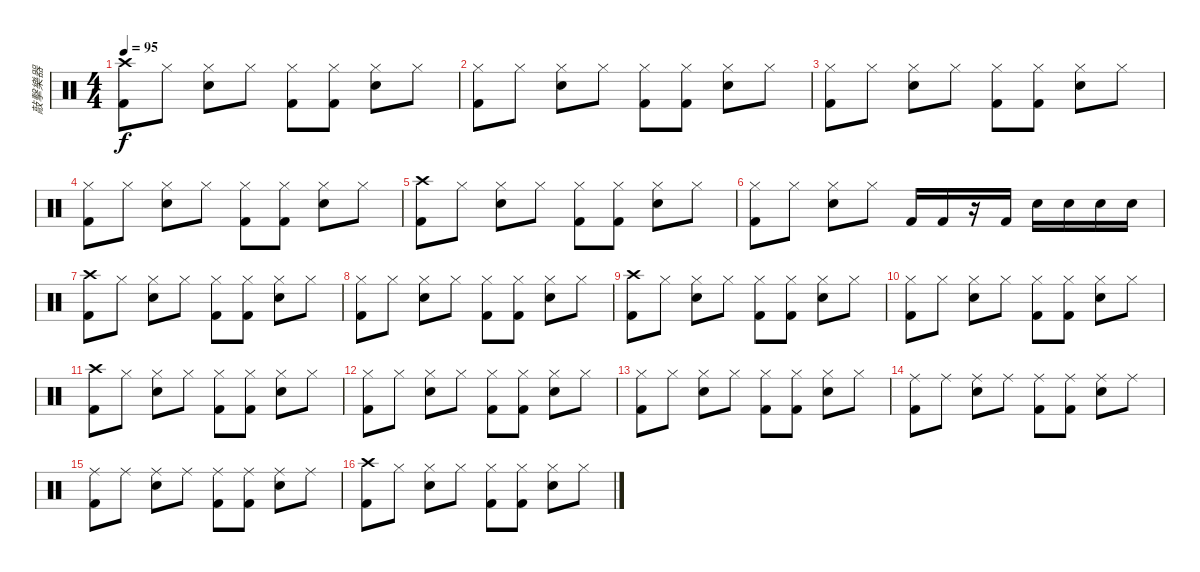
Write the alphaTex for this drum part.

\track ("敲擊樂器" "敲擊樂器") {instrument percussion}
\staff {score}
\articulation defaults
\ts (4 4)
\tempo 95
\clef neutral
\ks c
("Crash high (hit)" "Kick (hit) 2").8{dy f} "Hi-Hat (closed)".8 ("Hi-Hat (closed)" "Snare (hit) 2").8 "Hi-Hat (closed)".8 ("Hi-Hat (closed)" "Kick (hit) 2").8 ("Hi-Hat (closed)" "Kick (hit) 2").8 ("Hi-Hat (closed)" "Snare (hit) 2").8 "Hi-Hat (closed)".8 |
("Hi-Hat (closed)" "Kick (hit) 2").8 "Hi-Hat (closed)".8 ("Hi-Hat (closed)" "Snare (hit) 2").8 "Hi-Hat (closed)".8 ("Hi-Hat (closed)" "Kick (hit) 2").8 ("Hi-Hat (closed)" "Kick (hit) 2").8 ("Hi-Hat (closed)" "Snare (hit) 2").8 "Hi-Hat (closed)".8 |
("Hi-Hat (closed)" "Kick (hit) 2").8 "Hi-Hat (closed)".8 ("Hi-Hat (closed)" "Snare (hit) 2").8 "Hi-Hat (closed)".8 ("Hi-Hat (closed)" "Kick (hit) 2").8 ("Hi-Hat (closed)" "Kick (hit) 2").8 ("Hi-Hat (closed)" "Snare (hit) 2").8 "Hi-Hat (closed)".8 |
("Hi-Hat (closed)" "Kick (hit) 2").8 "Hi-Hat (closed)".8 ("Hi-Hat (closed)" "Snare (hit) 2").8 "Hi-Hat (closed)".8 ("Hi-Hat (closed)" "Kick (hit) 2").8 ("Hi-Hat (closed)" "Kick (hit) 2").8 ("Hi-Hat (closed)" "Snare (hit) 2").8 "Hi-Hat (closed)".8 |
("Crash high (hit)" "Kick (hit) 2").8 "Hi-Hat (closed)".8 ("Hi-Hat (closed)" "Snare (hit) 2").8 "Hi-Hat (closed)".8 ("Hi-Hat (closed)" "Kick (hit) 2").8 ("Hi-Hat (closed)" "Kick (hit) 2").8 ("Hi-Hat (closed)" "Snare (hit) 2").8 "Hi-Hat (closed)".8 |
("Hi-Hat (closed)" "Kick (hit) 2").8 "Hi-Hat (closed)".8 ("Hi-Hat (closed)" "Snare (hit) 2").8 "Hi-Hat (closed)".8 "Kick (hit) 2".16 "Kick (hit) 2".16 r.16 "Kick (hit) 2".16 "Snare (hit) 2".16 "Snare (hit) 2".16 "Snare (hit) 2".16 "Snare (hit) 2".16 |
("Crash high (hit)" "Kick (hit) 2").8 "Hi-Hat (closed)".8 ("Hi-Hat (closed)" "Snare (hit) 2").8 "Hi-Hat (closed)".8 ("Hi-Hat (closed)" "Kick (hit) 2").8 ("Hi-Hat (closed)" "Kick (hit) 2").8 ("Hi-Hat (closed)" "Snare (hit) 2").8 "Hi-Hat (closed)".8 |
("Hi-Hat (closed)" "Kick (hit) 2").8 "Hi-Hat (closed)".8 ("Hi-Hat (closed)" "Snare (hit) 2").8 "Hi-Hat (closed)".8 ("Hi-Hat (closed)" "Kick (hit) 2").8 ("Hi-Hat (closed)" "Kick (hit) 2").8 ("Hi-Hat (closed)" "Snare (hit) 2").8 "Hi-Hat (closed)".8 |
("Crash high (hit)" "Kick (hit) 2").8 "Hi-Hat (closed)".8 ("Hi-Hat (closed)" "Snare (hit) 2").8 "Hi-Hat (closed)".8 ("Hi-Hat (closed)" "Kick (hit) 2").8 ("Hi-Hat (closed)" "Kick (hit) 2").8 ("Hi-Hat (closed)" "Snare (hit) 2").8 "Hi-Hat (closed)".8 |
("Hi-Hat (closed)" "Kick (hit) 2").8 "Hi-Hat (closed)".8 ("Hi-Hat (closed)" "Snare (hit) 2").8 "Hi-Hat (closed)".8 ("Hi-Hat (closed)" "Kick (hit) 2").8 ("Hi-Hat (closed)" "Kick (hit) 2").8 ("Hi-Hat (closed)" "Snare (hit) 2").8 "Hi-Hat (closed)".8 |
("Crash high (hit)" "Kick (hit) 2").8 "Hi-Hat (closed)".8 ("Hi-Hat (closed)" "Snare (hit) 2").8 "Hi-Hat (closed)".8 ("Hi-Hat (closed)" "Kick (hit) 2").8 ("Hi-Hat (closed)" "Kick (hit) 2").8 ("Hi-Hat (closed)" "Snare (hit) 2").8 "Hi-Hat (closed)".8 |
("Hi-Hat (closed)" "Kick (hit) 2").8 "Hi-Hat (closed)".8 ("Hi-Hat (closed)" "Snare (hit) 2").8 "Hi-Hat (closed)".8 ("Hi-Hat (closed)" "Kick (hit) 2").8 ("Hi-Hat (closed)" "Kick (hit) 2").8 ("Hi-Hat (closed)" "Snare (hit) 2").8 "Hi-Hat (closed)".8 |
("Hi-Hat (closed)" "Kick (hit) 2").8 "Hi-Hat (closed)".8 ("Hi-Hat (closed)" "Snare (hit) 2").8 "Hi-Hat (closed)".8 ("Hi-Hat (closed)" "Kick (hit) 2").8 ("Hi-Hat (closed)" "Kick (hit) 2").8 ("Hi-Hat (closed)" "Snare (hit) 2").8 "Hi-Hat (closed)".8 |
("Ride (middle)" "Kick (hit) 2").8 "Ride (middle)".8 ("Ride (middle)" "Snare (hit) 2").8 "Ride (middle)".8 ("Ride (middle)" "Kick (hit) 2").8 ("Ride (middle)" "Kick (hit) 2").8 ("Ride (middle)" "Snare (hit) 2").8 "Ride (middle)".8 |
("Ride (middle)" "Kick (hit) 2").8 "Ride (middle)".8 ("Ride (middle)" "Snare (hit) 2").8 "Ride (middle)".8 ("Ride (middle)" "Kick (hit) 2").8 ("Ride (middle)" "Kick (hit) 2").8 ("Ride (middle)" "Snare (hit) 2").8 "Ride (middle)".8 |
("Crash high (hit)" "Kick (hit) 2").8 "Hi-Hat (closed)".8 ("Hi-Hat (closed)" "Snare (hit) 2").8 "Hi-Hat (closed)".8 ("Hi-Hat (closed)" "Kick (hit) 2").8 ("Hi-Hat (closed)" "Kick (hit) 2").8 ("Hi-Hat (closed)" "Snare (hit) 2").8 "Hi-Hat (closed)".8
